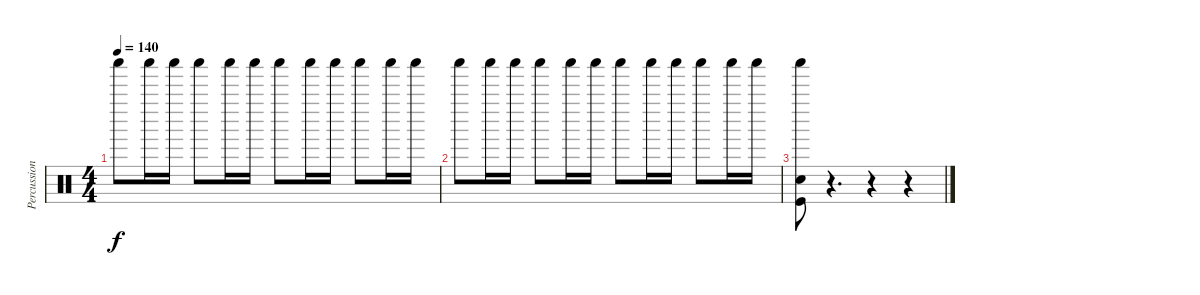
\track ("Percussion" "Percussion") {instrument percussion}
\staff {score}
\articulation defaults
\ts (4 4)
\tempo 140
\clef neutral
\ks c "Shaker (hit)".8{dy f} "Shaker (hit)".16 "Shaker (hit)".16 "Shaker (hit)".8 "Shaker (hit)".16 "Shaker (hit)".16 "Shaker (hit)".8 "Shaker (hit)".16 "Shaker (hit)".16 "Shaker (hit)".8 "Shaker (hit)".16 "Shaker (hit)".16
|
"Shaker (hit)".8 "Shaker (hit)".16 "Shaker (hit)".16 "Shaker (hit)".8 "Shaker (hit)".16 "Shaker (hit)".16 "Shaker (hit)".8 "Shaker (hit)".16 "Shaker (hit)".16 "Shaker (hit)".8 "Shaker (hit)".16 "Shaker (hit)".16 |
("Shaker (hit)" "Snare (hit) 2" "Kick (hit)").8 r.4{d} r.4 r.4
